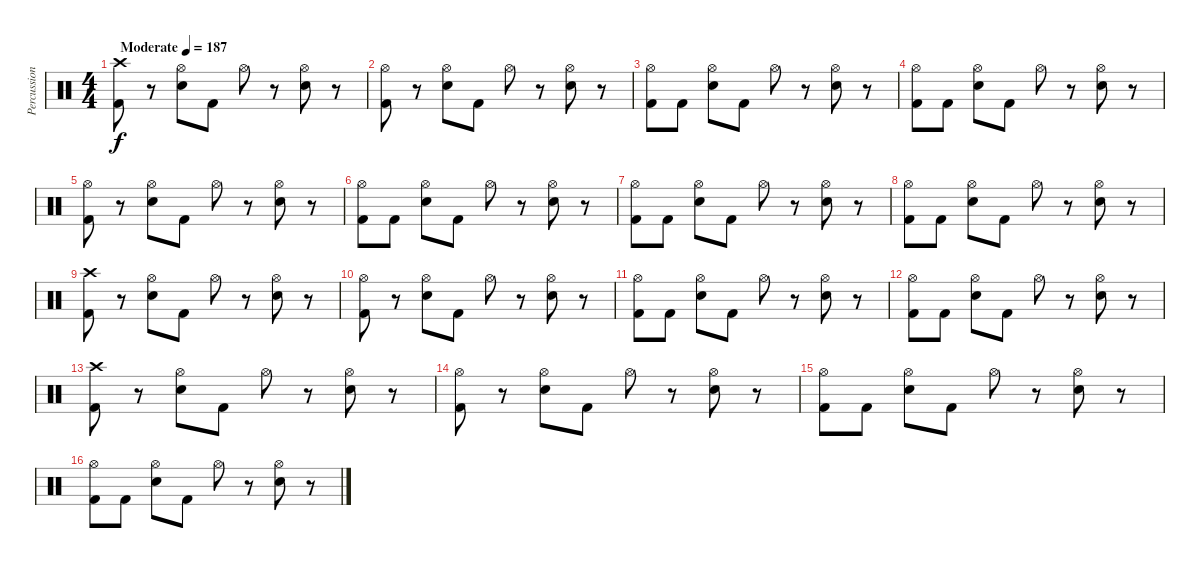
\track ("Percussion" "Percussion") {instrument percussion}
\staff {score}
\articulation defaults
\ts (4 4)
\tempo (187 "Moderate")
\clef neutral
\ks c
("Crash high (hit)" "Kick (hit) 2").8{dy f} r.8 ("Hi-Hat (open)" "Electric Snare (hit)").8 "Kick (hit) 2".8 "Hi-Hat (open)".8 r.8 ("Hi-Hat (open)" "Electric Snare (hit)").8 r.8 |
("Hi-Hat (open)" "Kick (hit) 2").8 r.8 ("Hi-Hat (open)" "Electric Snare (hit)").8 "Kick (hit) 2".8 "Hi-Hat (open)".8 r.8 ("Hi-Hat (open)" "Electric Snare (hit)").8 r.8 |
("Hi-Hat (open)" "Kick (hit) 2").8 "Kick (hit) 2".8 ("Hi-Hat (open)" "Electric Snare (hit)").8 "Kick (hit) 2".8 "Hi-Hat (open)".8 r.8 ("Hi-Hat (open)" "Electric Snare (hit)").8 r.8 |
("Hi-Hat (open)" "Kick (hit) 2").8 "Kick (hit) 2".8 ("Hi-Hat (open)" "Electric Snare (hit)").8 "Kick (hit) 2".8 "Hi-Hat (open)".8 r.8 ("Hi-Hat (open)" "Electric Snare (hit)").8 r.8 |
("Hi-Hat (open)" "Kick (hit) 2").8 r.8 ("Hi-Hat (open)" "Electric Snare (hit)").8 "Kick (hit) 2".8 "Hi-Hat (open)".8 r.8 ("Hi-Hat (open)" "Electric Snare (hit)").8 r.8 |
("Hi-Hat (open)" "Kick (hit) 2").8 "Kick (hit) 2".8 ("Hi-Hat (open)" "Electric Snare (hit)").8 "Kick (hit) 2".8 "Hi-Hat (open)".8 r.8 ("Hi-Hat (open)" "Electric Snare (hit)").8 r.8 |
("Hi-Hat (open)" "Kick (hit) 2").8 "Kick (hit) 2".8 ("Hi-Hat (open)" "Electric Snare (hit)").8 "Kick (hit) 2".8 "Hi-Hat (open)".8 r.8 ("Hi-Hat (open)" "Electric Snare (hit)").8 r.8 |
("Hi-Hat (open)" "Kick (hit) 2").8 "Kick (hit) 2".8 ("Hi-Hat (open)" "Electric Snare (hit)").8 "Kick (hit) 2".8 "Hi-Hat (open)".8 r.8 ("Hi-Hat (open)" "Electric Snare (hit)").8 r.8 |
("Crash high (hit)" "Kick (hit) 2").8 r.8 ("Hi-Hat (open)" "Electric Snare (hit)").8 "Kick (hit) 2".8 "Hi-Hat (open)".8 r.8 ("Hi-Hat (open)" "Electric Snare (hit)").8 r.8 |
("Hi-Hat (open)" "Kick (hit) 2").8 r.8 ("Hi-Hat (open)" "Electric Snare (hit)").8 "Kick (hit) 2".8 "Hi-Hat (open)".8 r.8 ("Hi-Hat (open)" "Electric Snare (hit)").8 r.8 |
("Hi-Hat (open)" "Kick (hit) 2").8 "Kick (hit) 2".8 ("Hi-Hat (open)" "Electric Snare (hit)").8 "Kick (hit) 2".8 "Hi-Hat (open)".8 r.8 ("Hi-Hat (open)" "Electric Snare (hit)").8 r.8 |
("Hi-Hat (open)" "Kick (hit) 2").8 "Kick (hit) 2".8 ("Hi-Hat (open)" "Electric Snare (hit)").8 "Kick (hit) 2".8 "Hi-Hat (open)".8 r.8 ("Hi-Hat (open)" "Electric Snare (hit)").8 r.8 |
("Crash high (hit)" "Kick (hit) 2").8 r.8 ("Hi-Hat (open)" "Electric Snare (hit)").8 "Kick (hit) 2".8 "Hi-Hat (open)".8 r.8 ("Hi-Hat (open)" "Electric Snare (hit)").8 r.8 |
("Hi-Hat (open)" "Kick (hit) 2").8 r.8 ("Hi-Hat (open)" "Electric Snare (hit)").8 "Kick (hit) 2".8 "Hi-Hat (open)".8 r.8 ("Hi-Hat (open)" "Electric Snare (hit)").8 r.8 |
("Hi-Hat (open)" "Kick (hit) 2").8 "Kick (hit) 2".8 ("Hi-Hat (open)" "Electric Snare (hit)").8 "Kick (hit) 2".8 "Hi-Hat (open)".8 r.8 ("Hi-Hat (open)" "Electric Snare (hit)").8 r.8 |
("Hi-Hat (open)" "Kick (hit) 2").8 "Kick (hit) 2".8 ("Hi-Hat (open)" "Electric Snare (hit)").8 "Kick (hit) 2".8 "Hi-Hat (open)".8 r.8 ("Hi-Hat (open)" "Electric Snare (hit)").8 r.8
